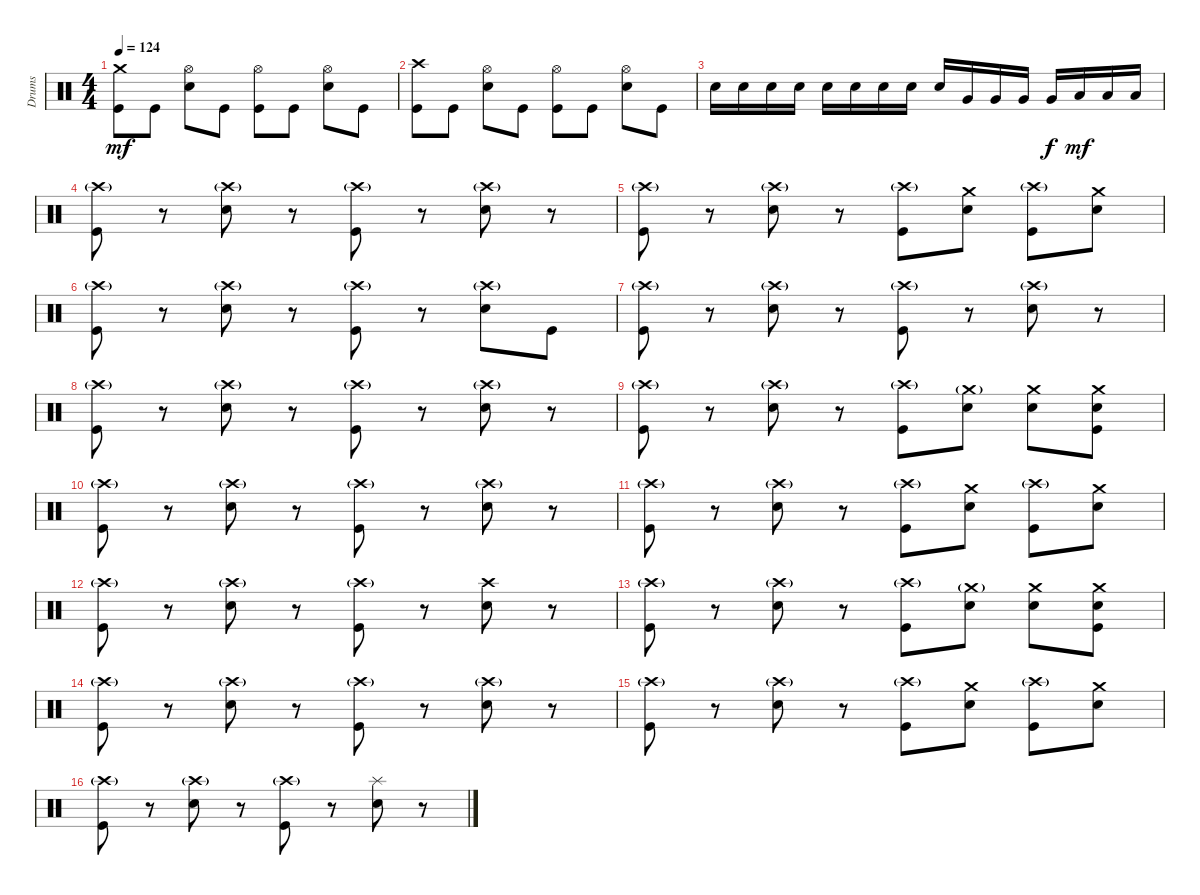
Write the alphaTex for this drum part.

\track ("Drums" "Drums") {instrument percussion}
\staff {score}
\articulation defaults
\ts (4 4)
\tempo 124
\clef neutral
\ks c
("Crash medium (hit)" "Kick (hit)").8{dy mf} "Kick (hit)".8 ("Hi-Hat (open)" "Electric Snare (hit)").8 "Kick (hit)".8 ("Hi-Hat (open)" "Kick (hit)").8 "Kick (hit)".8 ("Hi-Hat (open)" "Electric Snare (hit)").8 "Kick (hit)".8 |
("Crash high (hit)" "Kick (hit)").8 "Kick (hit)".8 ("Hi-Hat (open)" "Electric Snare (hit)").8 "Kick (hit)".8 ("Hi-Hat (open)" "Kick (hit)").8 "Kick (hit)".8 ("Hi-Hat (open)" "Electric Snare (hit)").8 "Kick (hit)".8 |
"Electric Snare (hit)".16 "Electric Snare (hit)".16 "Electric Snare (hit)".16 "Electric Snare (hit)".16 "Electric Snare (hit)".16 "Electric Snare (hit)".16 "Electric Snare (hit)".16 "Electric Snare (hit)".16 "Electric Snare (hit)".16 "Very Low Tom (hit)".16 "Very Low Tom (hit)".16 "Very Low Tom (hit)".16 "Very Low Tom (hit)".16{dy f} "Low Floor Tom (hit)".16{dy mf} "Low Floor Tom (hit)".16 "Low Floor Tom (hit)".16 |
("Crash high (hit)"{g} "Kick (hit)").8 r.8 ("Crash high (hit)"{g} "Electric Snare (hit)").8 r.8 ("Crash high (hit)"{g} "Kick (hit)").8 r.8 ("Crash high (hit)"{g} "Electric Snare (hit)").8 r.8 |
("Crash high (hit)"{g} "Kick (hit)").8 r.8 ("Crash high (hit)"{g} "Electric Snare (hit)").8 r.8 ("Crash high (hit)"{g} "Kick (hit)").8 ("Crash medium (hit)" "Electric Snare (hit)").8 ("Crash high (hit)"{g} "Kick (hit)").8 ("Crash medium (hit)" "Electric Snare (hit)").8 |
("Crash high (hit)"{g} "Kick (hit)").8 r.8 ("Crash high (hit)"{g} "Electric Snare (hit)").8 r.8 ("Crash high (hit)"{g} "Kick (hit)").8 r.8 ("Crash high (hit)"{g} "Electric Snare (hit)").8 "Kick (hit)".8 |
("Crash high (hit)"{g} "Kick (hit)").8 r.8 ("Crash high (hit)"{g} "Electric Snare (hit)").8 r.8 ("Crash high (hit)"{g} "Kick (hit)").8 r.8 ("Crash high (hit)"{g} "Electric Snare (hit)").8 r.8 |
("Crash high (hit)"{g} "Kick (hit)").8 r.8 ("Crash high (hit)"{g} "Electric Snare (hit)").8 r.8 ("Crash high (hit)"{g} "Kick (hit)").8 r.8 ("Crash high (hit)"{g} "Electric Snare (hit)").8 r.8 |
("Crash high (hit)"{g} "Kick (hit)").8 r.8 ("Crash high (hit)"{g} "Electric Snare (hit)").8 r.8 ("Crash high (hit)"{g} "Kick (hit)").8 ("Crash medium (hit)"{g} "Electric Snare (hit)").8 ("Crash medium (hit)" "Electric Snare (hit)").8 ("Crash medium (hit)" "Electric Snare (hit)" "Kick (hit)").8 |
("Crash high (hit)"{g} "Kick (hit)").8 r.8 ("Crash high (hit)"{g} "Electric Snare (hit)").8 r.8 ("Crash high (hit)"{g} "Kick (hit)").8 r.8 ("Crash high (hit)"{g} "Electric Snare (hit)").8 r.8 |
("Crash high (hit)"{g} "Kick (hit)").8 r.8 ("Crash high (hit)"{g} "Electric Snare (hit)").8 r.8 ("Crash high (hit)"{g} "Kick (hit)").8 ("Crash medium (hit)" "Electric Snare (hit)").8 ("Crash high (hit)"{g} "Kick (hit)").8 ("Crash medium (hit)" "Electric Snare (hit)").8 |
("Crash high (hit)"{g} "Kick (hit)").8 r.8 ("Crash high (hit)"{g} "Electric Snare (hit)").8 r.8 ("Crash high (hit)"{g} "Kick (hit)").8 r.8 ("Crash high (hit)" "Electric Snare (hit)").8 r.8 |
("Crash high (hit)"{g} "Kick (hit)").8 r.8 ("Crash high (hit)"{g} "Electric Snare (hit)").8 r.8 ("Crash high (hit)"{g} "Kick (hit)").8 ("Crash medium (hit)"{g} "Electric Snare (hit)").8 ("Crash medium (hit)" "Electric Snare (hit)").8 ("Crash medium (hit)" "Electric Snare (hit)" "Kick (hit)").8 |
("Crash high (hit)"{g} "Kick (hit)").8 r.8 ("Crash high (hit)"{g} "Electric Snare (hit)").8 r.8 ("Crash high (hit)"{g} "Kick (hit)").8 r.8 ("Crash high (hit)"{g} "Electric Snare (hit)").8 r.8 |
("Crash high (hit)"{g} "Kick (hit)").8 r.8 ("Crash high (hit)"{g} "Electric Snare (hit)").8 r.8 ("Crash high (hit)"{g} "Kick (hit)").8 ("Crash medium (hit)" "Electric Snare (hit)").8 ("Crash high (hit)"{g} "Kick (hit)").8 ("Crash medium (hit)" "Electric Snare (hit)").8 |
("Crash high (hit)"{g} "Kick (hit)").8 r.8 ("Crash high (hit)"{g} "Electric Snare (hit)").8 r.8 ("Crash high (hit)"{g} "Kick (hit)").8 r.8 ("Splash (hit)" "Electric Snare (hit)").8 r.8
